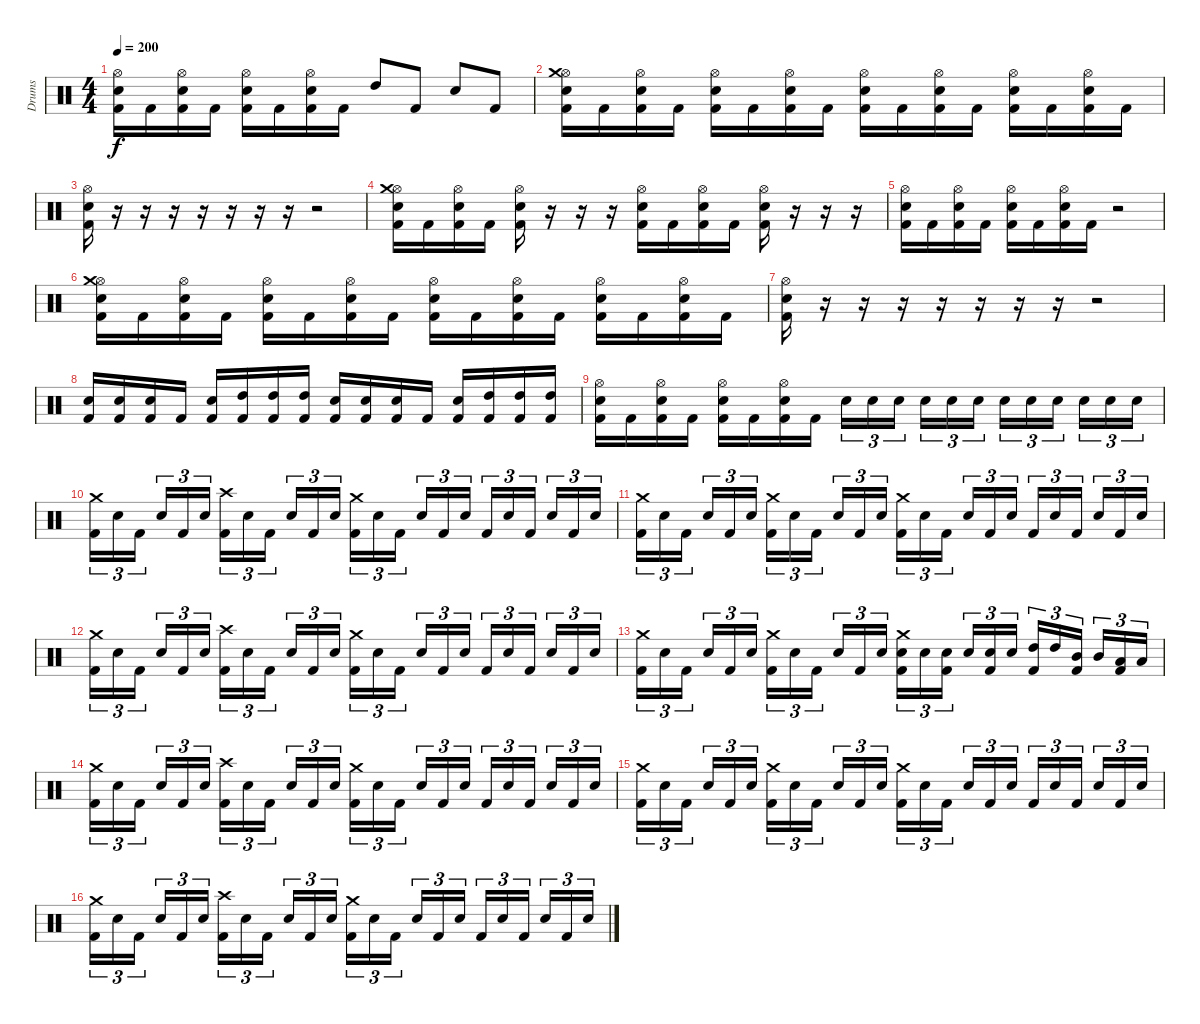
\track ("Drums" "Drums") {instrument percussion}
\staff {score}
\articulation defaults
\ts (4 4)
\tempo 200
\clef neutral
\ks c
("Hi-Hat (open)" "Electric Snare (hit)" "Kick (hit) 2").16{dy f} "Kick (hit) 2".16 ("Hi-Hat (open)" "Electric Snare (hit)" "Kick (hit) 2").16 "Kick (hit) 2".16 ("Hi-Hat (open)" "Electric Snare (hit)" "Kick (hit) 2").16 "Kick (hit) 2".16 ("Hi-Hat (open)" "Electric Snare (hit)" "Kick (hit) 2").16 "Kick (hit) 2".16 "High Tom (hit)".8 "Kick (hit) 2".8 "Electric Snare (hit)".8 "Kick (hit) 2".8 |
("Hi-Hat (open)" "Crash medium (hit)" "Electric Snare (hit)" "Kick (hit) 2").16 "Kick (hit) 2".16 ("Hi-Hat (open)" "Electric Snare (hit)" "Kick (hit) 2").16 "Kick (hit) 2".16 ("Hi-Hat (open)" "Electric Snare (hit)" "Kick (hit) 2").16 "Kick (hit) 2".16 ("Hi-Hat (open)" "Electric Snare (hit)" "Kick (hit) 2").16 "Kick (hit) 2".16 ("Hi-Hat (open)" "Electric Snare (hit)" "Kick (hit) 2").16 "Kick (hit) 2".16 ("Hi-Hat (open)" "Electric Snare (hit)" "Kick (hit) 2").16 "Kick (hit) 2".16 ("Hi-Hat (open)" "Electric Snare (hit)" "Kick (hit) 2").16 "Kick (hit) 2".16 ("Hi-Hat (open)" "Electric Snare (hit)" "Kick (hit) 2").16 "Kick (hit) 2".16 |
("Hi-Hat (open)" "Electric Snare (hit)" "Kick (hit) 2").16 r.16 r.16 r.16 r.16 r.16 r.16 r.16 r.2 |
("Hi-Hat (open)" "Crash medium (hit)" "Electric Snare (hit)" "Kick (hit) 2").16 "Kick (hit) 2".16 ("Hi-Hat (open)" "Electric Snare (hit)" "Kick (hit) 2").16 "Kick (hit) 2".16 ("Hi-Hat (open)" "Electric Snare (hit)" "Kick (hit) 2").16 r.16 r.16 r.16 ("Hi-Hat (open)" "Electric Snare (hit)" "Kick (hit) 2").16 "Kick (hit) 2".16 ("Hi-Hat (open)" "Electric Snare (hit)" "Kick (hit) 2").16 "Kick (hit) 2".16 ("Hi-Hat (open)" "Electric Snare (hit)" "Kick (hit) 2").16 r.16 r.16 r.16 |
("Hi-Hat (open)" "Electric Snare (hit)" "Kick (hit) 2").16 "Kick (hit) 2".16 ("Hi-Hat (open)" "Electric Snare (hit)" "Kick (hit) 2").16 "Kick (hit) 2".16 ("Hi-Hat (open)" "Electric Snare (hit)" "Kick (hit) 2").16 "Kick (hit) 2".16 ("Hi-Hat (open)" "Electric Snare (hit)" "Kick (hit) 2").16 "Kick (hit) 2".16 r.2 |
("Hi-Hat (open)" "Crash medium (hit)" "Electric Snare (hit)" "Kick (hit) 2").16 "Kick (hit) 2".16 ("Hi-Hat (open)" "Electric Snare (hit)" "Kick (hit) 2").16 "Kick (hit) 2".16 ("Hi-Hat (open)" "Electric Snare (hit)" "Kick (hit) 2").16 "Kick (hit) 2".16 ("Hi-Hat (open)" "Electric Snare (hit)" "Kick (hit) 2").16 "Kick (hit) 2".16 ("Hi-Hat (open)" "Electric Snare (hit)" "Kick (hit) 2").16 "Kick (hit) 2".16 ("Hi-Hat (open)" "Electric Snare (hit)" "Kick (hit) 2").16 "Kick (hit) 2".16 ("Hi-Hat (open)" "Electric Snare (hit)" "Kick (hit) 2").16 "Kick (hit) 2".16 ("Hi-Hat (open)" "Electric Snare (hit)" "Kick (hit) 2").16 "Kick (hit) 2".16 |
("Hi-Hat (open)" "Electric Snare (hit)" "Kick (hit) 2").16 r.16 r.16 r.16 r.16 r.16 r.16 r.16 r.2 |
("Electric Snare (hit)" "Kick (hit) 2").16 ("Electric Snare (hit)" "Kick (hit) 2").16 ("Electric Snare (hit)" "Kick (hit) 2").16 "Kick (hit) 2".16 ("Electric Snare (hit)" "Kick (hit) 2").16 ("High Tom (hit)" "Kick (hit) 2").16 ("High Tom (hit)" "Kick (hit) 2").16 ("High Tom (hit)" "Kick (hit) 2").16 ("Electric Snare (hit)" "Kick (hit) 2").16 ("Electric Snare (hit)" "Kick (hit) 2").16 ("Electric Snare (hit)" "Kick (hit) 2").16 "Kick (hit) 2".16 ("Electric Snare (hit)" "Kick (hit) 2").16 ("High Tom (hit)" "Kick (hit) 2").16 ("High Tom (hit)" "Kick (hit) 2").16 ("High Tom (hit)" "Kick (hit) 2").16 |
("Hi-Hat (open)" "Electric Snare (hit)" "Kick (hit) 2").16 "Kick (hit) 2".16 ("Hi-Hat (open)" "Electric Snare (hit)" "Kick (hit) 2").16 "Kick (hit) 2".16 ("Hi-Hat (open)" "Electric Snare (hit)" "Kick (hit) 2").16 "Kick (hit) 2".16 ("Hi-Hat (open)" "Electric Snare (hit)" "Kick (hit) 2").16 "Kick (hit) 2".16 "Electric Snare (hit)".16{tu (3 2)} "Electric Snare (hit)".16{tu (3 2)} "Electric Snare (hit)".16{tu (3 2)} "Electric Snare (hit)".16{tu (3 2)} "Electric Snare (hit)".16{tu (3 2)} "Electric Snare (hit)".16{tu (3 2)} "Electric Snare (hit)".16{tu (3 2)} "Electric Snare (hit)".16{tu (3 2)} "Electric Snare (hit)".16{tu (3 2)} "Electric Snare (hit)".16{tu (3 2)} "Electric Snare (hit)".16{tu (3 2)} "Electric Snare (hit)".16{tu (3 2)} |
("Crash medium (hit)" "Kick (hit) 2").16{tu (3 2)} "Electric Snare (hit)".16{tu (3 2)} "Kick (hit) 2".16{tu (3 2)} "Electric Snare (hit)".16{tu (3 2)} "Kick (hit) 2".16{tu (3 2)} "Electric Snare (hit)".16{tu (3 2)} ("Crash high (hit)" "Kick (hit) 2").16{tu (3 2)} "Electric Snare (hit)".16{tu (3 2)} "Kick (hit) 2".16{tu (3 2)} "Electric Snare (hit)".16{tu (3 2)} "Kick (hit) 2".16{tu (3 2)} "Electric Snare (hit)".16{tu (3 2)} ("Crash medium (hit)" "Kick (hit) 2").16{tu (3 2)} "Electric Snare (hit)".16{tu (3 2)} "Kick (hit) 2".16{tu (3 2)} "Electric Snare (hit)".16{tu (3 2)} "Kick (hit) 2".16{tu (3 2)} "Electric Snare (hit)".16{tu (3 2)} "Kick (hit) 2".16{tu (3 2)} "Electric Snare (hit)".16{tu (3 2)} "Kick (hit) 2".16{tu (3 2)} "Electric Snare (hit)".16{tu (3 2)} "Kick (hit) 2".16{tu (3 2)} "Electric Snare (hit)".16{tu (3 2)} |
("Crash medium (hit)" "Kick (hit) 2").16{tu (3 2)} "Electric Snare (hit)".16{tu (3 2)} "Kick (hit) 2".16{tu (3 2)} "Electric Snare (hit)".16{tu (3 2)} "Kick (hit) 2".16{tu (3 2)} "Electric Snare (hit)".16{tu (3 2)} ("Crash medium (hit)" "Kick (hit) 2").16{tu (3 2)} "Electric Snare (hit)".16{tu (3 2)} "Kick (hit) 2".16{tu (3 2)} "Electric Snare (hit)".16{tu (3 2)} "Kick (hit) 2".16{tu (3 2)} "Electric Snare (hit)".16{tu (3 2)} ("Crash medium (hit)" "Kick (hit) 2").16{tu (3 2)} "Electric Snare (hit)".16{tu (3 2)} "Kick (hit) 2".16{tu (3 2)} "Electric Snare (hit)".16{tu (3 2)} "Kick (hit) 2".16{tu (3 2)} "Electric Snare (hit)".16{tu (3 2)} "Kick (hit) 2".16{tu (3 2)} "Electric Snare (hit)".16{tu (3 2)} "Kick (hit) 2".16{tu (3 2)} "Electric Snare (hit)".16{tu (3 2)} "Kick (hit) 2".16{tu (3 2)} "Electric Snare (hit)".16{tu (3 2)} |
("Crash medium (hit)" "Kick (hit) 2").16{tu (3 2)} "Electric Snare (hit)".16{tu (3 2)} "Kick (hit) 2".16{tu (3 2)} "Electric Snare (hit)".16{tu (3 2)} "Kick (hit) 2".16{tu (3 2)} "Electric Snare (hit)".16{tu (3 2)} ("Crash high (hit)" "Kick (hit) 2").16{tu (3 2)} "Electric Snare (hit)".16{tu (3 2)} "Kick (hit) 2".16{tu (3 2)} "Electric Snare (hit)".16{tu (3 2)} "Kick (hit) 2".16{tu (3 2)} "Electric Snare (hit)".16{tu (3 2)} ("Crash medium (hit)" "Kick (hit) 2").16{tu (3 2)} "Electric Snare (hit)".16{tu (3 2)} "Kick (hit) 2".16{tu (3 2)} "Electric Snare (hit)".16{tu (3 2)} "Kick (hit) 2".16{tu (3 2)} "Electric Snare (hit)".16{tu (3 2)} "Kick (hit) 2".16{tu (3 2)} "Electric Snare (hit)".16{tu (3 2)} "Kick (hit) 2".16{tu (3 2)} "Electric Snare (hit)".16{tu (3 2)} "Kick (hit) 2".16{tu (3 2)} "Electric Snare (hit)".16{tu (3 2)} |
("Crash medium (hit)" "Kick (hit) 2").16{tu (3 2)} "Electric Snare (hit)".16{tu (3 2)} "Kick (hit) 2".16{tu (3 2)} "Electric Snare (hit)".16{tu (3 2)} "Kick (hit) 2".16{tu (3 2)} "Electric Snare (hit)".16{tu (3 2)} ("Crash medium (hit)" "Kick (hit) 2").16{tu (3 2)} "Electric Snare (hit)".16{tu (3 2)} "Kick (hit) 2".16{tu (3 2)} "Electric Snare (hit)".16{tu (3 2)} "Kick (hit) 2".16{tu (3 2)} "Electric Snare (hit)".16{tu (3 2)} ("Crash medium (hit)" "Electric Snare (hit)" "Kick (hit) 2").16{tu (3 2)} "Electric Snare (hit)".16{tu (3 2)} ("Electric Snare (hit)" "Kick (hit) 2").16{tu (3 2)} "Electric Snare (hit)".16{tu (3 2)} ("Electric Snare (hit)" "Kick (hit) 2").16{tu (3 2)} "Electric Snare (hit)".16{tu (3 2)} ("High Tom (hit)" "Kick (hit) 2").16{tu (3 2)} "High Tom (hit)".16{tu (3 2)} ("Mid Tom (hit)" "Kick (hit) 2").16{tu (3 2)} "Mid Tom (hit)".16{tu (3 2)} ("Low Tom (hit)" "Kick (hit) 2").16{tu (3 2)} "Low Tom (hit)".16{tu (3 2)} |
("Crash medium (hit)" "Kick (hit) 2").16{tu (3 2)} "Electric Snare (hit)".16{tu (3 2)} "Kick (hit) 2".16{tu (3 2)} "Electric Snare (hit)".16{tu (3 2)} "Kick (hit) 2".16{tu (3 2)} "Electric Snare (hit)".16{tu (3 2)} ("Crash high (hit)" "Kick (hit) 2").16{tu (3 2)} "Electric Snare (hit)".16{tu (3 2)} "Kick (hit) 2".16{tu (3 2)} "Electric Snare (hit)".16{tu (3 2)} "Kick (hit) 2".16{tu (3 2)} "Electric Snare (hit)".16{tu (3 2)} ("Crash medium (hit)" "Kick (hit) 2").16{tu (3 2)} "Electric Snare (hit)".16{tu (3 2)} "Kick (hit) 2".16{tu (3 2)} "Electric Snare (hit)".16{tu (3 2)} "Kick (hit) 2".16{tu (3 2)} "Electric Snare (hit)".16{tu (3 2)} "Kick (hit) 2".16{tu (3 2)} "Electric Snare (hit)".16{tu (3 2)} "Kick (hit) 2".16{tu (3 2)} "Electric Snare (hit)".16{tu (3 2)} "Kick (hit) 2".16{tu (3 2)} "Electric Snare (hit)".16{tu (3 2)} |
("Crash medium (hit)" "Kick (hit) 2").16{tu (3 2)} "Electric Snare (hit)".16{tu (3 2)} "Kick (hit) 2".16{tu (3 2)} "Electric Snare (hit)".16{tu (3 2)} "Kick (hit) 2".16{tu (3 2)} "Electric Snare (hit)".16{tu (3 2)} ("Crash medium (hit)" "Kick (hit) 2").16{tu (3 2)} "Electric Snare (hit)".16{tu (3 2)} "Kick (hit) 2".16{tu (3 2)} "Electric Snare (hit)".16{tu (3 2)} "Kick (hit) 2".16{tu (3 2)} "Electric Snare (hit)".16{tu (3 2)} ("Crash medium (hit)" "Kick (hit) 2").16{tu (3 2)} "Electric Snare (hit)".16{tu (3 2)} "Kick (hit) 2".16{tu (3 2)} "Electric Snare (hit)".16{tu (3 2)} "Kick (hit) 2".16{tu (3 2)} "Electric Snare (hit)".16{tu (3 2)} "Kick (hit) 2".16{tu (3 2)} "Electric Snare (hit)".16{tu (3 2)} "Kick (hit) 2".16{tu (3 2)} "Electric Snare (hit)".16{tu (3 2)} "Kick (hit) 2".16{tu (3 2)} "Electric Snare (hit)".16{tu (3 2)} |
("Crash medium (hit)" "Kick (hit) 2").16{tu (3 2)} "Electric Snare (hit)".16{tu (3 2)} "Kick (hit) 2".16{tu (3 2)} "Electric Snare (hit)".16{tu (3 2)} "Kick (hit) 2".16{tu (3 2)} "Electric Snare (hit)".16{tu (3 2)} ("Crash high (hit)" "Kick (hit) 2").16{tu (3 2)} "Electric Snare (hit)".16{tu (3 2)} "Kick (hit) 2".16{tu (3 2)} "Electric Snare (hit)".16{tu (3 2)} "Kick (hit) 2".16{tu (3 2)} "Electric Snare (hit)".16{tu (3 2)} ("Crash medium (hit)" "Kick (hit) 2").16{tu (3 2)} "Electric Snare (hit)".16{tu (3 2)} "Kick (hit) 2".16{tu (3 2)} "Electric Snare (hit)".16{tu (3 2)} "Kick (hit) 2".16{tu (3 2)} "Electric Snare (hit)".16{tu (3 2)} "Kick (hit) 2".16{tu (3 2)} "Electric Snare (hit)".16{tu (3 2)} "Kick (hit) 2".16{tu (3 2)} "Electric Snare (hit)".16{tu (3 2)} "Kick (hit) 2".16{tu (3 2)} "Electric Snare (hit)".16{tu (3 2)}
